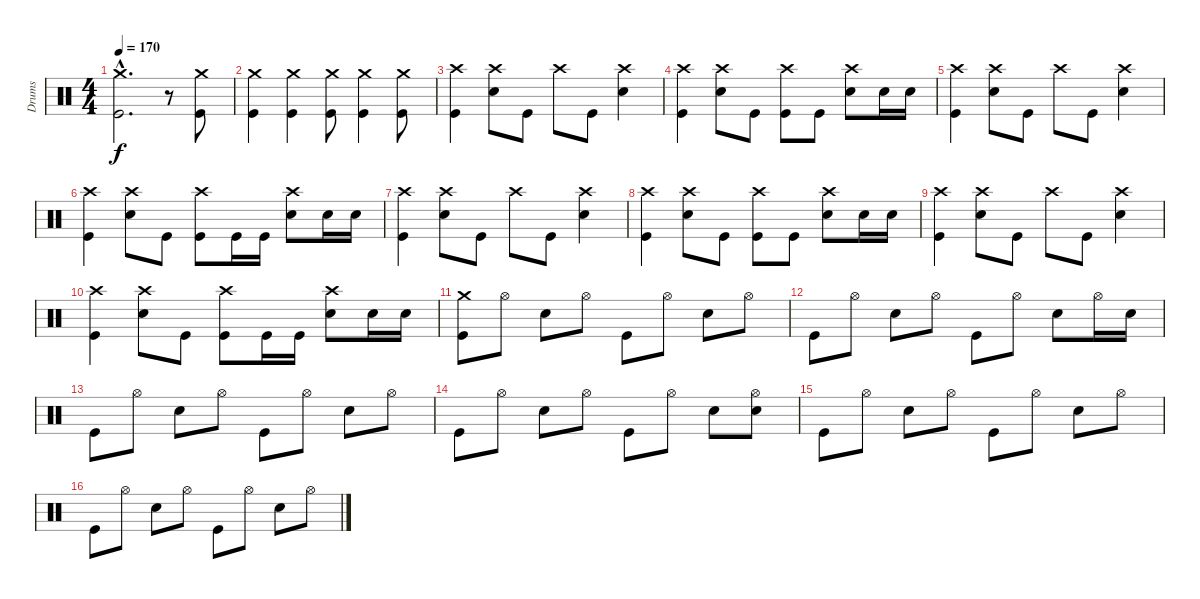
\track ("Drums" "Drums") {instrument percussion}
\staff {score}
\articulation defaults
\ts (4 4)
\tempo 170
\clef neutral
\ks c
("Crash medium (hit)"{hac} "Kick (hit)"{hac}).2{d dy f} r.8 ("Crash medium (hit)" "Kick (hit)").8 |
("Crash medium (hit)" "Kick (hit)").4 ("Crash medium (hit)" "Kick (hit)").4 ("Crash medium (hit)" "Kick (hit)").8 ("Crash medium (hit)" "Kick (hit)").4 ("Crash medium (hit)" "Kick (hit)").8 |
("Crash high (hit)" "Kick (hit)").4 ("Crash high (hit)" "Electric Snare (hit)").8 "Kick (hit)".8 "Crash high (hit)".8 "Kick (hit)".8 ("Crash high (hit)" "Electric Snare (hit)").4 |
("Crash high (hit)" "Kick (hit)").4 ("Crash high (hit)" "Electric Snare (hit)").8 "Kick (hit)".8 ("Crash high (hit)" "Kick (hit)").8 "Kick (hit)".8 ("Crash high (hit)" "Electric Snare (hit)").8 "Electric Snare (hit)".16 "Electric Snare (hit)".16 |
("Crash high (hit)" "Kick (hit)").4 ("Crash high (hit)" "Electric Snare (hit)").8 "Kick (hit)".8 "Crash high (hit)".8 "Kick (hit)".8 ("Crash high (hit)" "Electric Snare (hit)").4 |
("Crash high (hit)" "Kick (hit)").4 ("Crash high (hit)" "Electric Snare (hit)").8 "Kick (hit)".8 ("Crash high (hit)" "Kick (hit)").8 "Kick (hit)".16 "Kick (hit)".16 ("Crash high (hit)" "Electric Snare (hit)").8 "Electric Snare (hit)".16 "Electric Snare (hit)".16 |
("Crash high (hit)" "Kick (hit)").4 ("Crash high (hit)" "Electric Snare (hit)").8 "Kick (hit)".8 "Crash high (hit)".8 "Kick (hit)".8 ("Crash high (hit)" "Electric Snare (hit)").4 |
("Crash high (hit)" "Kick (hit)").4 ("Crash high (hit)" "Electric Snare (hit)").8 "Kick (hit)".8 ("Crash high (hit)" "Kick (hit)").8 "Kick (hit)".8 ("Crash high (hit)" "Electric Snare (hit)").8 "Electric Snare (hit)".16 "Electric Snare (hit)".16 |
("Crash high (hit)" "Kick (hit)").4 ("Crash high (hit)" "Electric Snare (hit)").8 "Kick (hit)".8 "Crash high (hit)".8 "Kick (hit)".8 ("Crash high (hit)" "Electric Snare (hit)").4 |
("Crash high (hit)" "Kick (hit)").4 ("Crash high (hit)" "Electric Snare (hit)").8 "Kick (hit)".8 ("Crash high (hit)" "Kick (hit)").8 "Kick (hit)".16 "Kick (hit)".16 ("Crash high (hit)" "Electric Snare (hit)").8 "Electric Snare (hit)".16 "Electric Snare (hit)".16 |
("Crash medium (hit)" "Kick (hit)").8 "Hi-Hat (open)".8 "Electric Snare (hit)".8 "Hi-Hat (open)".8 "Kick (hit)".8 "Hi-Hat (open)".8 "Electric Snare (hit)".8 "Hi-Hat (open)".8 |
"Kick (hit)".8 "Hi-Hat (open)".8 "Electric Snare (hit)".8 "Hi-Hat (open)".8 "Kick (hit)".8 "Hi-Hat (open)".8 "Electric Snare (hit)".8 "Hi-Hat (open)".16 "Electric Snare (hit)".16 |
"Kick (hit)".8 "Hi-Hat (open)".8 "Electric Snare (hit)".8 "Hi-Hat (open)".8 "Kick (hit)".8 "Hi-Hat (open)".8 "Electric Snare (hit)".8 "Hi-Hat (open)".8 |
"Kick (hit)".8 "Hi-Hat (open)".8 "Electric Snare (hit)".8 "Hi-Hat (open)".8 "Kick (hit)".8 "Hi-Hat (open)".8 "Electric Snare (hit)".8 ("Electric Snare (hit)" "Hi-Hat (open)").8 |
"Kick (hit)".8 "Hi-Hat (open)".8 "Electric Snare (hit)".8 "Hi-Hat (open)".8 "Kick (hit)".8 "Hi-Hat (open)".8 "Electric Snare (hit)".8 "Hi-Hat (open)".8 |
"Kick (hit)".8 "Hi-Hat (open)".8 "Electric Snare (hit)".8 "Hi-Hat (open)".8 "Kick (hit)".8 "Hi-Hat (open)".8 "Electric Snare (hit)".8 "Hi-Hat (open)".8
